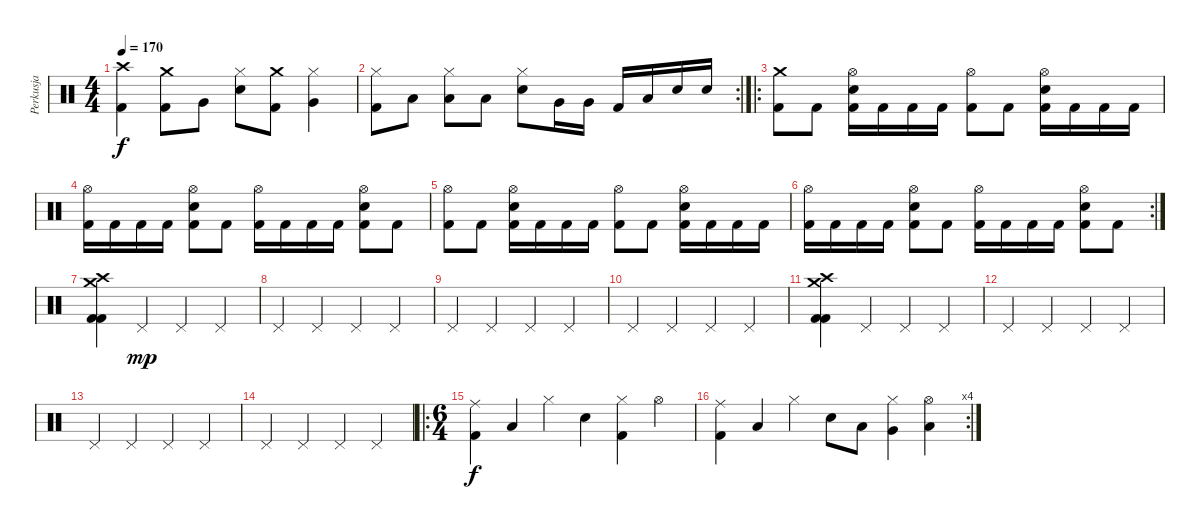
\track ("Perkusja" "Perkusja") {instrument percussion}
\staff {score}
\articulation defaults
\ts (4 4)
\tempo 170
\clef neutral
\ks c
("Crash high (hit)" "Kick (hit) 2").4{dy f} ("Crash medium (hit)" "Kick (hit) 2").8 "Very Low Tom (hit)".8 ("Hi-Hat (closed)" "Snare (hit) 2").8 ("Crash medium (hit)" "Kick (hit) 2").8 ("Hi-Hat (closed)" "Very Low Tom (hit)").4 |
\rc 2
("Hi-Hat (closed)" "Kick (hit) 2").8 "Low Tom (hit)".8 ("Hi-Hat (closed)" "Low Tom (hit)").8 "Low Tom (hit)".8 ("Hi-Hat (closed)" "Snare (hit) 2").8 "Very Low Tom (hit)".16 "Very Low Tom (hit)".16 "Kick (hit) 2".16 "Low Tom (hit)".16 "Snare (hit) 2".16 "Snare (hit) 2".16 |
\ro
("Crash medium (hit)" "Kick (hit) 2").8 "Kick (hit) 2".8 ("Hi-Hat (open)" "Snare (hit) 2" "Kick (hit) 2").16 "Kick (hit) 2".16 "Kick (hit) 2".16 "Kick (hit) 2".16 ("Hi-Hat (open)" "Kick (hit) 2").8 "Kick (hit) 2".8 ("Hi-Hat (open)" "Snare (hit) 2" "Kick (hit) 2").16 "Kick (hit) 2".16 "Kick (hit) 2".16 "Kick (hit) 2".16 |
("Hi-Hat (open)" "Kick (hit) 2").16 "Kick (hit) 2".16 "Kick (hit) 2".16 "Kick (hit) 2".16 ("Hi-Hat (open)" "Snare (hit) 2" "Kick (hit) 2").8 "Kick (hit) 2".8 ("Hi-Hat (open)" "Kick (hit) 2").16 "Kick (hit) 2".16 "Kick (hit) 2".16 "Kick (hit) 2".16 ("Hi-Hat (open)" "Snare (hit) 2" "Kick (hit) 2").8 "Kick (hit) 2".8 |
("Hi-Hat (open)" "Kick (hit) 2").8 "Kick (hit) 2".8 ("Hi-Hat (open)" "Snare (hit) 2" "Kick (hit) 2").16 "Kick (hit) 2".16 "Kick (hit) 2".16 "Kick (hit) 2".16 ("Hi-Hat (open)" "Kick (hit) 2").8 "Kick (hit) 2".8 ("Hi-Hat (open)" "Snare (hit) 2" "Kick (hit) 2").16 "Kick (hit) 2".16 "Kick (hit) 2".16 "Kick (hit) 2".16 |
\rc 2
("Hi-Hat (open)" "Kick (hit) 2").16 "Kick (hit) 2".16 "Kick (hit) 2".16 "Kick (hit) 2".16 ("Hi-Hat (open)" "Snare (hit) 2" "Kick (hit) 2").8 "Kick (hit) 2".8 ("Hi-Hat (open)" "Kick (hit) 2").16 "Kick (hit) 2".16 "Kick (hit) 2".16 "Kick (hit) 2".16 ("Hi-Hat (open)" "Snare (hit) 2" "Kick (hit) 2").8 "Kick (hit) 2".8 |
("Crash high (hit)" "Crash medium (hit)" "Kick (hit) 2" "Kick (hit) 2").4 "Pedal Hi-Hat (hit)".4{dy mp} "Pedal Hi-Hat (hit)".4 "Pedal Hi-Hat (hit)".4 |
"Pedal Hi-Hat (hit)".4 "Pedal Hi-Hat (hit)".4 "Pedal Hi-Hat (hit)".4 "Pedal Hi-Hat (hit)".4 |
"Pedal Hi-Hat (hit)".4 "Pedal Hi-Hat (hit)".4 "Pedal Hi-Hat (hit)".4 "Pedal Hi-Hat (hit)".4 |
"Pedal Hi-Hat (hit)".4 "Pedal Hi-Hat (hit)".4 "Pedal Hi-Hat (hit)".4 "Pedal Hi-Hat (hit)".4 |
("Crash high (hit)" "Crash medium (hit)" "Kick (hit) 2" "Kick (hit) 2").4 "Pedal Hi-Hat (hit)".4 "Pedal Hi-Hat (hit)".4 "Pedal Hi-Hat (hit)".4 |
"Pedal Hi-Hat (hit)".4 "Pedal Hi-Hat (hit)".4 "Pedal Hi-Hat (hit)".4 "Pedal Hi-Hat (hit)".4 |
"Pedal Hi-Hat (hit)".4 "Pedal Hi-Hat (hit)".4 "Pedal Hi-Hat (hit)".4 "Pedal Hi-Hat (hit)".4 |
"Pedal Hi-Hat (hit)".4 "Pedal Hi-Hat (hit)".4 "Pedal Hi-Hat (hit)".4 "Pedal Hi-Hat (hit)".4 |
\ro
\ts (6 4)
("Ride (middle)" "Kick (hit) 2").4{dy f} "Low Tom (hit)".4 "Hi-Hat (closed)".4 "Snare (hit) 2".4 ("Hi-Hat (closed)" "Kick (hit) 2").4 "Hi-Hat (open)".4 |
\rc 4
("Ride (middle)" "Kick (hit) 2").4 "Low Tom (hit)".4 "Hi-Hat (closed)".4 "Snare (hit) 2".8 "Low Tom (hit)".8 ("Hi-Hat (closed)" "Very Low Tom (hit)").4 ("Hi-Hat (open)" "Low Tom (hit)").4
